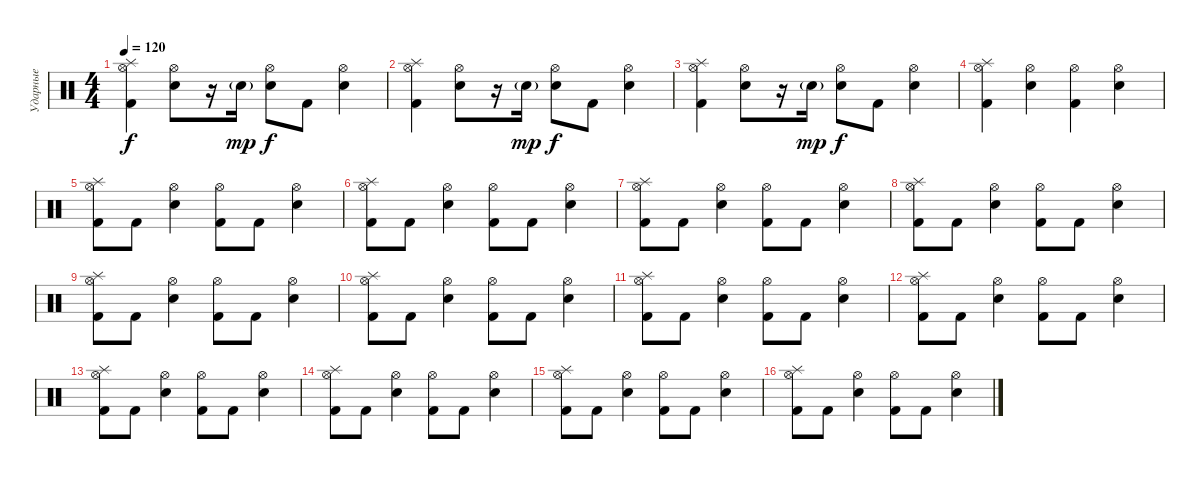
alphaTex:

\track ("Ударные" "Ударные") {instrument percussion}
\staff {score}
\articulation defaults
\ts (4 4)
\tempo 120
\clef neutral
\ks c
("Kick (hit) 2" "Hi-Hat (open)" "Splash (hit)").4{dy f} ("Electric Snare (hit)" "Hi-Hat (open)").8 r.16 "Electric Snare (hit)"{g}.16{dy mp} ("Electric Snare (hit)" "Hi-Hat (open)").8{dy f} "Kick (hit) 2".8 ("Electric Snare (hit)" "Hi-Hat (open)").4 |
("Kick (hit) 2" "Hi-Hat (open)" "Splash (hit)").4 ("Electric Snare (hit)" "Hi-Hat (open)").8 r.16 "Electric Snare (hit)"{g}.16{dy mp} ("Electric Snare (hit)" "Hi-Hat (open)").8{dy f} "Kick (hit) 2".8 ("Electric Snare (hit)" "Hi-Hat (open)").4 |
("Kick (hit) 2" "Hi-Hat (open)" "Splash (hit)").4 ("Electric Snare (hit)" "Hi-Hat (open)").8 r.16 "Electric Snare (hit)"{g}.16{dy mp} ("Electric Snare (hit)" "Hi-Hat (open)").8{dy f} "Kick (hit) 2".8 ("Electric Snare (hit)" "Hi-Hat (open)").4 |
("Kick (hit) 2" "Hi-Hat (open)" "Splash (hit)").4 ("Electric Snare (hit)" "Hi-Hat (open)").4 ("Kick (hit) 2" "Hi-Hat (open)").4 ("Electric Snare (hit)" "Hi-Hat (open)").4 |
("Kick (hit) 2" "Hi-Hat (open)" "Splash (hit)").8 "Kick (hit) 2".8 ("Electric Snare (hit)" "Hi-Hat (open)").4 ("Kick (hit) 2" "Hi-Hat (open)").8 "Kick (hit) 2".8 ("Electric Snare (hit)" "Hi-Hat (open)").4 |
("Kick (hit) 2" "Hi-Hat (open)" "Splash (hit)").8 "Kick (hit) 2".8 ("Electric Snare (hit)" "Hi-Hat (open)").4 ("Kick (hit) 2" "Hi-Hat (open)").8 "Kick (hit) 2".8 ("Electric Snare (hit)" "Hi-Hat (open)").4 |
("Kick (hit) 2" "Hi-Hat (open)" "Splash (hit)").8 "Kick (hit) 2".8 ("Electric Snare (hit)" "Hi-Hat (open)").4 ("Kick (hit) 2" "Hi-Hat (open)").8 "Kick (hit) 2".8 ("Electric Snare (hit)" "Hi-Hat (open)").4 |
("Kick (hit) 2" "Hi-Hat (open)" "Splash (hit)").8 "Kick (hit) 2".8 ("Electric Snare (hit)" "Hi-Hat (open)").4 ("Kick (hit) 2" "Hi-Hat (open)").8 "Kick (hit) 2".8 ("Electric Snare (hit)" "Hi-Hat (open)").4 |
("Kick (hit) 2" "Hi-Hat (open)" "Splash (hit)").8 "Kick (hit) 2".8 ("Electric Snare (hit)" "Hi-Hat (open)").4 ("Kick (hit) 2" "Hi-Hat (open)").8 "Kick (hit) 2".8 ("Electric Snare (hit)" "Hi-Hat (open)").4 |
("Kick (hit) 2" "Hi-Hat (open)" "Splash (hit)").8 "Kick (hit) 2".8 ("Electric Snare (hit)" "Hi-Hat (open)").4 ("Kick (hit) 2" "Hi-Hat (open)").8 "Kick (hit) 2".8 ("Electric Snare (hit)" "Hi-Hat (open)").4 |
("Kick (hit) 2" "Hi-Hat (open)" "Splash (hit)").8 "Kick (hit) 2".8 ("Electric Snare (hit)" "Hi-Hat (open)").4 ("Kick (hit) 2" "Hi-Hat (open)").8 "Kick (hit) 2".8 ("Electric Snare (hit)" "Hi-Hat (open)").4 |
("Kick (hit) 2" "Hi-Hat (open)" "Splash (hit)").8 "Kick (hit) 2".8 ("Electric Snare (hit)" "Hi-Hat (open)").4 ("Kick (hit) 2" "Hi-Hat (open)").8 "Kick (hit) 2".8 ("Electric Snare (hit)" "Hi-Hat (open)").4 |
("Kick (hit) 2" "Hi-Hat (open)" "Splash (hit)").8 "Kick (hit) 2".8 ("Electric Snare (hit)" "Hi-Hat (open)").4 ("Kick (hit) 2" "Hi-Hat (open)").8 "Kick (hit) 2".8 ("Electric Snare (hit)" "Hi-Hat (open)").4 |
("Kick (hit) 2" "Hi-Hat (open)" "Splash (hit)").8 "Kick (hit) 2".8 ("Electric Snare (hit)" "Hi-Hat (open)").4 ("Kick (hit) 2" "Hi-Hat (open)").8 "Kick (hit) 2".8 ("Electric Snare (hit)" "Hi-Hat (open)").4 |
("Kick (hit) 2" "Hi-Hat (open)" "Splash (hit)").8 "Kick (hit) 2".8 ("Electric Snare (hit)" "Hi-Hat (open)").4 ("Kick (hit) 2" "Hi-Hat (open)").8 "Kick (hit) 2".8 ("Electric Snare (hit)" "Hi-Hat (open)").4 |
("Kick (hit) 2" "Hi-Hat (open)" "Splash (hit)").8 "Kick (hit) 2".8 ("Electric Snare (hit)" "Hi-Hat (open)").4 ("Kick (hit) 2" "Hi-Hat (open)").8 "Kick (hit) 2".8 ("Electric Snare (hit)" "Hi-Hat (open)").4
